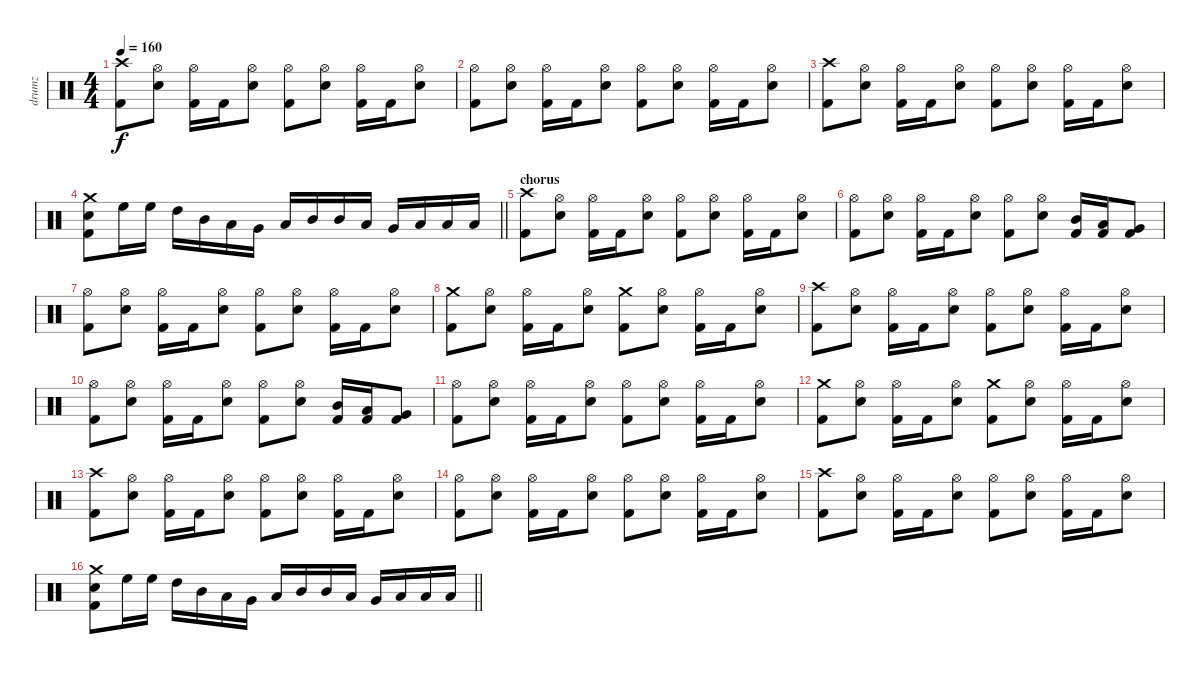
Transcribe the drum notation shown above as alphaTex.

\track ("drumz" "drumz") {instrument percussion}
\staff {score}
\articulation defaults
\ts (4 4)
\tempo 160
\clef neutral
\ks c
("Crash high (hit)" "Kick (hit) 2").8{dy f} ("Hi-Hat (open)" "Electric Snare (hit)").8 ("Hi-Hat (open)" "Kick (hit) 2").16 "Kick (hit) 2".16 ("Hi-Hat (open)" "Electric Snare (hit)").8 ("Hi-Hat (open)" "Kick (hit) 2").8 ("Hi-Hat (open)" "Electric Snare (hit)").8 ("Hi-Hat (open)" "Kick (hit) 2").16 "Kick (hit) 2".16 ("Hi-Hat (open)" "Electric Snare (hit)").8 |
("Hi-Hat (open)" "Kick (hit) 2").8 ("Hi-Hat (open)" "Electric Snare (hit)").8 ("Hi-Hat (open)" "Kick (hit) 2").16 "Kick (hit) 2".16 ("Hi-Hat (open)" "Electric Snare (hit)").8 ("Hi-Hat (open)" "Kick (hit) 2").8 ("Hi-Hat (open)" "Electric Snare (hit)").8 ("Hi-Hat (open)" "Kick (hit) 2").16 "Kick (hit) 2".16 ("Hi-Hat (open)" "Electric Snare (hit)").8 |
("Crash high (hit)" "Kick (hit) 2").8 ("Hi-Hat (open)" "Electric Snare (hit)").8 ("Hi-Hat (open)" "Kick (hit) 2").16 "Kick (hit) 2".16 ("Hi-Hat (open)" "Electric Snare (hit)").8 ("Hi-Hat (open)" "Kick (hit) 2").8 ("Hi-Hat (open)" "Electric Snare (hit)").8 ("Hi-Hat (open)" "Kick (hit) 2").16 "Kick (hit) 2".16 ("Hi-Hat (open)" "Electric Snare (hit)").8 |
\barLineRight lightlight
("Crash medium (hit)" "Electric Snare (hit)" "Kick (hit) 2").8 "High Floor Tom (hit)".16 "High Floor Tom (hit)".16 "High Tom (hit)".16 "Mid Tom (hit)".16 "Low Tom (hit)".16 "Very Low Tom (hit)".16 "Low Floor Tom (hit)".16 "Mid Tom (hit)".16 "Mid Tom (hit)".16 "Low Tom (hit)".16 "Very Low Tom (hit)".16 "Low Floor Tom (hit)".16 "Low Floor Tom (hit)".16 "Low Floor Tom (hit)".16 |
\section ("" "chorus")
("Crash high (hit)" "Kick (hit) 2").8 ("Hi-Hat (open)" "Electric Snare (hit)").8 ("Hi-Hat (open)" "Kick (hit) 2").16 "Kick (hit) 2".16 ("Hi-Hat (open)" "Electric Snare (hit)").8 ("Hi-Hat (open)" "Kick (hit) 2").8 ("Hi-Hat (open)" "Electric Snare (hit)").8 ("Hi-Hat (open)" "Kick (hit) 2").16 "Kick (hit) 2".16 ("Hi-Hat (open)" "Electric Snare (hit)").8 |
("Hi-Hat (open)" "Kick (hit) 2").8 ("Hi-Hat (open)" "Electric Snare (hit)").8 ("Hi-Hat (open)" "Kick (hit) 2").16 "Kick (hit) 2".16 ("Hi-Hat (open)" "Electric Snare (hit)").8 ("Hi-Hat (open)" "Kick (hit) 2").8 ("Hi-Hat (open)" "Electric Snare (hit)").8 ("Mid Tom (hit)" "Kick (hit) 2").16 ("Low Tom (hit)" "Kick (hit) 2").16 ("Very Low Tom (hit)" "Kick (hit) 2").8 |
("Hi-Hat (open)" "Kick (hit) 2").8 ("Hi-Hat (open)" "Electric Snare (hit)").8 ("Hi-Hat (open)" "Kick (hit) 2").16 "Kick (hit) 2".16 ("Hi-Hat (open)" "Electric Snare (hit)").8 ("Hi-Hat (open)" "Kick (hit) 2").8 ("Hi-Hat (open)" "Electric Snare (hit)").8 ("Hi-Hat (open)" "Kick (hit) 2").16 "Kick (hit) 2".16 ("Hi-Hat (open)" "Electric Snare (hit)").8 |
("Crash medium (hit)" "Kick (hit) 2").8 ("Hi-Hat (open)" "Electric Snare (hit)").8 ("Hi-Hat (open)" "Kick (hit) 2").16 "Kick (hit) 2".16 ("Hi-Hat (open)" "Electric Snare (hit)").8 ("Crash medium (hit)" "Kick (hit) 2").8 ("Hi-Hat (open)" "Electric Snare (hit)").8 ("Hi-Hat (open)" "Kick (hit) 2").16 "Kick (hit) 2".16 ("Hi-Hat (open)" "Electric Snare (hit)").8 |
("Crash high (hit)" "Kick (hit) 2").8 ("Hi-Hat (open)" "Electric Snare (hit)").8 ("Hi-Hat (open)" "Kick (hit) 2").16 "Kick (hit) 2".16 ("Hi-Hat (open)" "Electric Snare (hit)").8 ("Hi-Hat (open)" "Kick (hit) 2").8 ("Hi-Hat (open)" "Electric Snare (hit)").8 ("Hi-Hat (open)" "Kick (hit) 2").16 "Kick (hit) 2".16 ("Hi-Hat (open)" "Electric Snare (hit)").8 |
("Hi-Hat (open)" "Kick (hit) 2").8 ("Hi-Hat (open)" "Electric Snare (hit)").8 ("Hi-Hat (open)" "Kick (hit) 2").16 "Kick (hit) 2".16 ("Hi-Hat (open)" "Electric Snare (hit)").8 ("Hi-Hat (open)" "Kick (hit) 2").8 ("Hi-Hat (open)" "Electric Snare (hit)").8 ("Mid Tom (hit)" "Kick (hit) 2").16 ("Low Tom (hit)" "Kick (hit) 2").16 ("Very Low Tom (hit)" "Kick (hit) 2").8 |
("Hi-Hat (open)" "Kick (hit) 2").8 ("Hi-Hat (open)" "Electric Snare (hit)").8 ("Hi-Hat (open)" "Kick (hit) 2").16 "Kick (hit) 2".16 ("Hi-Hat (open)" "Electric Snare (hit)").8 ("Hi-Hat (open)" "Kick (hit) 2").8 ("Hi-Hat (open)" "Electric Snare (hit)").8 ("Hi-Hat (open)" "Kick (hit) 2").16 "Kick (hit) 2".16 ("Hi-Hat (open)" "Electric Snare (hit)").8 |
("Crash medium (hit)" "Kick (hit) 2").8 ("Hi-Hat (open)" "Electric Snare (hit)").8 ("Hi-Hat (open)" "Kick (hit) 2").16 "Kick (hit) 2".16 ("Hi-Hat (open)" "Electric Snare (hit)").8 ("Crash medium (hit)" "Kick (hit) 2").8 ("Hi-Hat (open)" "Electric Snare (hit)").8 ("Hi-Hat (open)" "Kick (hit) 2").16 "Kick (hit) 2".16 ("Hi-Hat (open)" "Electric Snare (hit)").8 |
("Crash high (hit)" "Kick (hit) 2").8 ("Hi-Hat (open)" "Electric Snare (hit)").8 ("Hi-Hat (open)" "Kick (hit) 2").16 "Kick (hit) 2".16 ("Hi-Hat (open)" "Electric Snare (hit)").8 ("Hi-Hat (open)" "Kick (hit) 2").8 ("Hi-Hat (open)" "Electric Snare (hit)").8 ("Hi-Hat (open)" "Kick (hit) 2").16 "Kick (hit) 2".16 ("Hi-Hat (open)" "Electric Snare (hit)").8 |
("Hi-Hat (open)" "Kick (hit) 2").8 ("Hi-Hat (open)" "Electric Snare (hit)").8 ("Hi-Hat (open)" "Kick (hit) 2").16 "Kick (hit) 2".16 ("Hi-Hat (open)" "Electric Snare (hit)").8 ("Hi-Hat (open)" "Kick (hit) 2").8 ("Hi-Hat (open)" "Electric Snare (hit)").8 ("Hi-Hat (open)" "Kick (hit) 2").16 "Kick (hit) 2".16 ("Hi-Hat (open)" "Electric Snare (hit)").8 |
("Crash high (hit)" "Kick (hit) 2").8 ("Hi-Hat (open)" "Electric Snare (hit)").8 ("Hi-Hat (open)" "Kick (hit) 2").16 "Kick (hit) 2".16 ("Hi-Hat (open)" "Electric Snare (hit)").8 ("Hi-Hat (open)" "Kick (hit) 2").8 ("Hi-Hat (open)" "Electric Snare (hit)").8 ("Hi-Hat (open)" "Kick (hit) 2").16 "Kick (hit) 2".16 ("Hi-Hat (open)" "Electric Snare (hit)").8 |
\barLineRight lightlight
("Crash medium (hit)" "Electric Snare (hit)" "Kick (hit) 2").8 "High Floor Tom (hit)".16 "High Floor Tom (hit)".16 "High Tom (hit)".16 "Mid Tom (hit)".16 "Low Tom (hit)".16 "Very Low Tom (hit)".16 "Low Floor Tom (hit)".16 "Mid Tom (hit)".16 "Mid Tom (hit)".16 "Low Tom (hit)".16 "Very Low Tom (hit)".16 "Low Floor Tom (hit)".16 "Low Floor Tom (hit)".16 "Low Floor Tom (hit)".16
